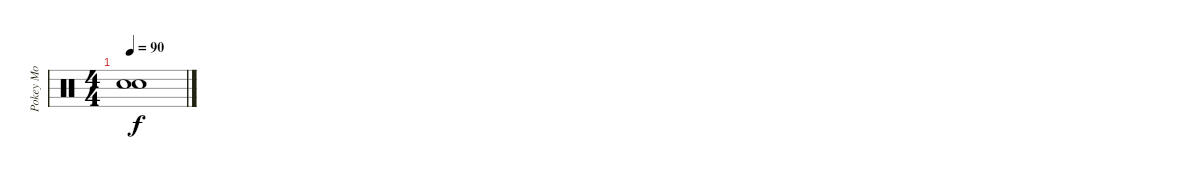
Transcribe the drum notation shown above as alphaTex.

\track ("Pokey Mo" "Pokey Mo") {instrument percussion}
\staff {score}
\articulation defaults
\ts (4 4)
\tempo 90
\clef neutral
\ks c
("Snare (hit)"{t} "Snare (hit)"{t}).1{dy f}
